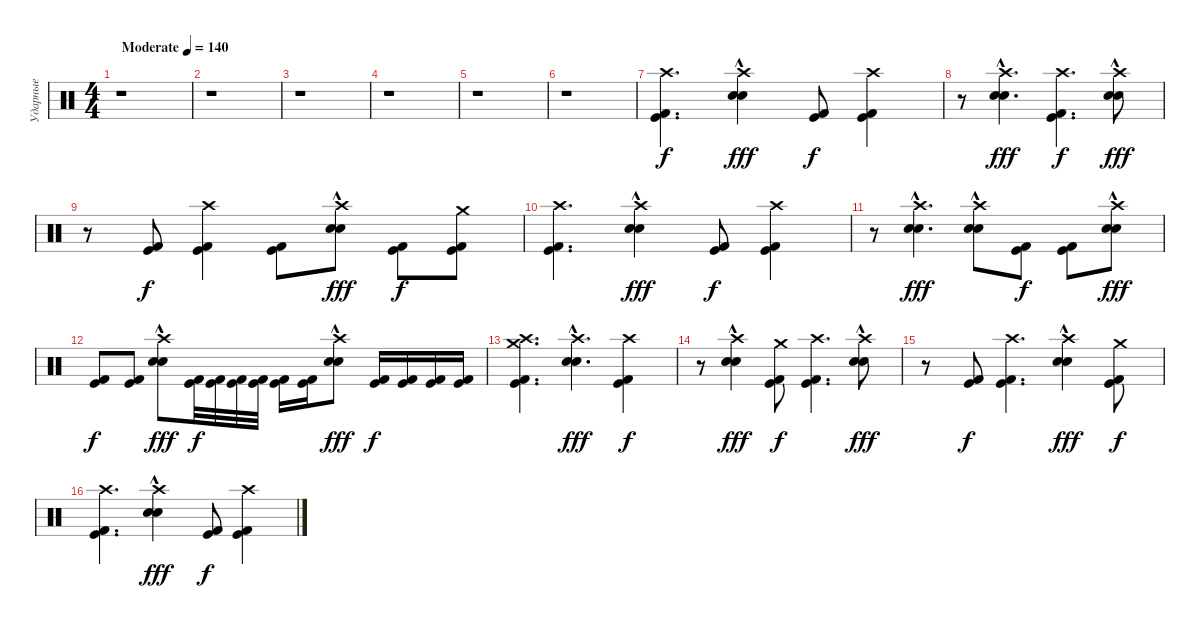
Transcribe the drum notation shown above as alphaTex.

\track ("Ударные" "Ударные") {instrument percussion}
\staff {score}
\articulation defaults
\ts (4 4)
\tempo (140 "Moderate")
\clef neutral
\ks c
r.1{dy f} |
r.1 |
r.1 |
r.1 |
r.1 |
r.1 |
("Crash high (hit)" "Kick (hit)" "Kick (hit) 2").4{d} ("Crash high (hit)" "Snare (hit) 2"{hac} "Electric Snare (hit)"{hac}).4{dy fff} ("Kick (hit)" "Kick (hit) 2").8{dy f} ("Crash high (hit)" "Kick (hit)" "Kick (hit) 2").4 |
r.8 ("Crash high (hit)" "Snare (hit) 2"{hac} "Electric Snare (hit)"{hac}).4{d dy fff} ("Crash high (hit)" "Kick (hit)" "Kick (hit) 2").4{d dy f} ("Crash high (hit)" "Snare (hit) 2"{hac} "Electric Snare (hit)"{hac}).8{dy fff} |
r.8 ("Kick (hit)" "Kick (hit) 2").8{dy f} ("Crash high (hit)" "Kick (hit)" "Kick (hit) 2").4 ("Kick (hit)" "Kick (hit) 2").8 ("Crash high (hit)" "Snare (hit) 2"{hac} "Electric Snare (hit)"{hac}).8{dy fff} ("Kick (hit)" "Kick (hit) 2").8{dy f} ("Crash medium (hit)" "Kick (hit)" "Kick (hit) 2").8 |
("Crash high (hit)" "Kick (hit)" "Kick (hit) 2").4{d} ("Crash high (hit)" "Snare (hit) 2"{hac} "Electric Snare (hit)"{hac}).4{dy fff} ("Kick (hit)" "Kick (hit) 2").8{dy f} ("Crash high (hit)" "Kick (hit)" "Kick (hit) 2").4 |
r.8 ("Crash high (hit)" "Snare (hit) 2"{hac} "Electric Snare (hit)"{hac}).4{d dy fff} ("Crash high (hit)" "Snare (hit) 2"{hac} "Electric Snare (hit)"{hac}).8 ("Kick (hit)" "Kick (hit) 2").8{dy f} ("Kick (hit)" "Kick (hit) 2").8 ("Crash high (hit)" "Snare (hit) 2"{hac} "Electric Snare (hit)"{hac}).8{dy fff} |
("Kick (hit)" "Kick (hit) 2").8{dy f} ("Kick (hit)" "Kick (hit) 2").8 ("Crash high (hit)" "Snare (hit) 2"{hac} "Electric Snare (hit)"{hac}).8{dy fff} ("Kick (hit)" "Kick (hit) 2").32{dy f} ("Kick (hit)" "Kick (hit) 2").32 ("Kick (hit)" "Kick (hit) 2").32 ("Kick (hit)" "Kick (hit) 2").32 ("Kick (hit)" "Kick (hit) 2").16 ("Kick (hit)" "Kick (hit) 2").16 ("Crash high (hit)" "Snare (hit) 2"{hac} "Electric Snare (hit)"{hac}).8{dy fff} ("Kick (hit)" "Kick (hit) 2").16{dy f} ("Kick (hit)" "Kick (hit) 2").16 ("Kick (hit)" "Kick (hit) 2").16 ("Kick (hit)" "Kick (hit) 2").16 |
("Crash high (hit)" "Kick (hit)" "Kick (hit) 2" "Crash medium (hit)").4{d} ("Crash high (hit)" "Snare (hit) 2"{hac} "Electric Snare (hit)"{hac}).4{d dy fff} ("Crash high (hit)" "Kick (hit)" "Kick (hit) 2").4{dy f} |
r.8 ("Crash high (hit)" "Snare (hit) 2"{hac} "Electric Snare (hit)"{hac}).4{dy fff} ("Crash medium (hit)" "Kick (hit)" "Kick (hit) 2").8{dy f} ("Crash high (hit)" "Kick (hit)" "Kick (hit) 2").4{d} ("Crash high (hit)" "Snare (hit) 2"{hac} "Electric Snare (hit)"{hac}).8{dy fff} |
r.8 ("Kick (hit)" "Kick (hit) 2").8{dy f} ("Crash high (hit)" "Kick (hit)" "Kick (hit) 2").4{d} ("Crash high (hit)" "Snare (hit) 2"{hac} "Electric Snare (hit)"{hac}).4{dy fff} ("Crash medium (hit)" "Kick (hit)" "Kick (hit) 2").8{dy f} |
("Crash high (hit)" "Kick (hit)" "Kick (hit) 2").4{d} ("Crash high (hit)" "Snare (hit) 2"{hac} "Electric Snare (hit)"{hac}).4{dy fff} ("Kick (hit)" "Kick (hit) 2").8{dy f} ("Crash high (hit)" "Kick (hit)" "Kick (hit) 2").4
